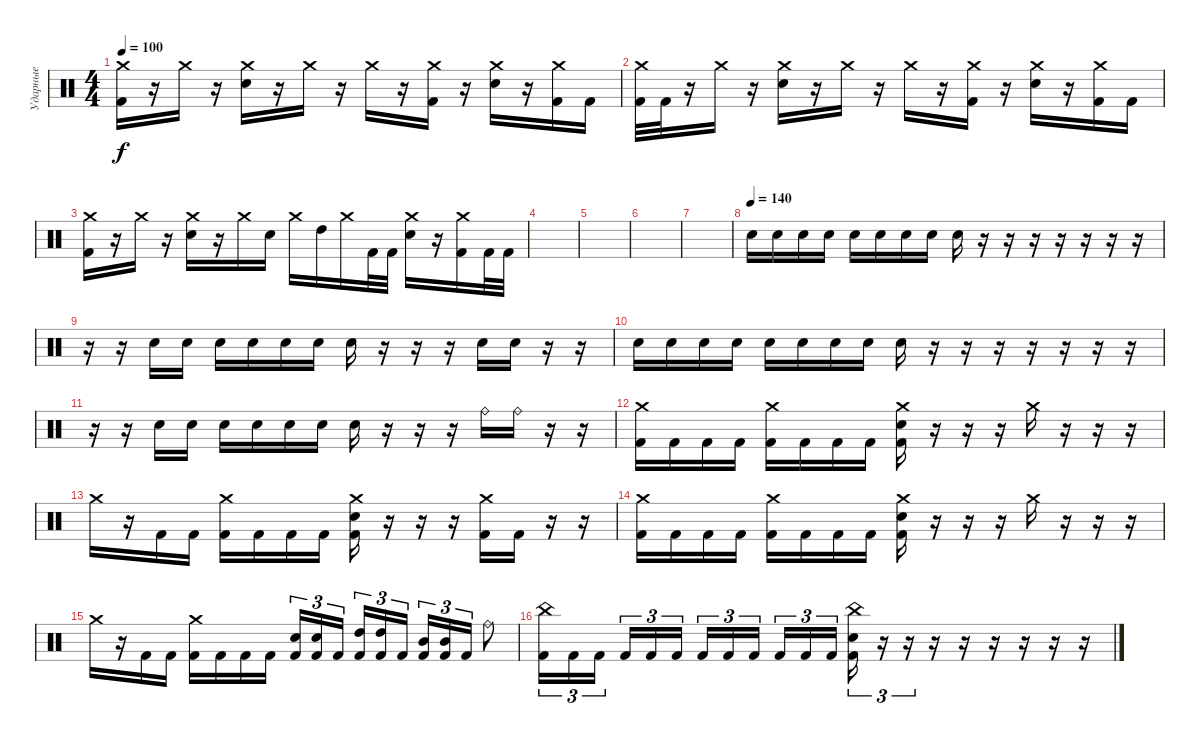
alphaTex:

\track ("Ударные" "Ударные") {instrument percussion}
\staff {score}
\articulation defaults
\ts (4 4)
\tempo 100
\clef neutral
\ks c
("Crash medium (hit)" "Kick (hit) 2").16{dy f} r.16 "Crash medium (hit)".16 r.16 ("Crash medium (hit)" "Electric Snare (hit)").16 r.16 "Crash medium (hit)".16 r.16 "Crash medium (hit)".16 r.16 ("Crash medium (hit)" "Kick (hit) 2").16 r.16 ("Crash medium (hit)" "Electric Snare (hit)").16 r.16 ("Crash medium (hit)" "Kick (hit) 2").16 "Kick (hit) 2".16 |
("Crash medium (hit)" "Kick (hit) 2").32 "Kick (hit) 2".32 r.16 "Crash medium (hit)".16 r.16 ("Crash medium (hit)" "Electric Snare (hit)").16 r.16 "Crash medium (hit)".16 r.16 "Crash medium (hit)".16 r.16 ("Crash medium (hit)" "Kick (hit) 2").16 r.16 ("Crash medium (hit)" "Electric Snare (hit)").16 r.16 ("Crash medium (hit)" "Kick (hit) 2").16 "Kick (hit) 2".16 |
("Crash medium (hit)" "Kick (hit) 2").16 r.16 "Crash medium (hit)".16 r.16 ("Crash medium (hit)" "Electric Snare (hit)").16 r.16 "Crash medium (hit)".16 "Electric Snare (hit)".16 "Crash medium (hit)".16 "High Tom (hit)".16 "Crash medium (hit)".16 "Kick (hit) 2".32 "Kick (hit) 2".32 ("Crash medium (hit)" "Electric Snare (hit)").16 r.16 ("Crash medium (hit)" "Kick (hit) 2").16 "Kick (hit) 2".32 "Kick (hit) 2".32 |
|
|
|
|
\tempo (140)
"Electric Snare (hit)".16 "Electric Snare (hit)".16 "Electric Snare (hit)".16 "Electric Snare (hit)".16 "Electric Snare (hit)".16 "Electric Snare (hit)".16 "Electric Snare (hit)".16 "Electric Snare (hit)".16 "Electric Snare (hit)".16 r.16 r.16 r.16 r.16 r.16 r.16 r.16 |
r.16 r.16 "Electric Snare (hit)".16 "Electric Snare (hit)".16 "Electric Snare (hit)".16 "Electric Snare (hit)".16 "Electric Snare (hit)".16 "Electric Snare (hit)".16 "Electric Snare (hit)".16 r.16 r.16 r.16 "Electric Snare (hit)".16 "Electric Snare (hit)".16 r.16 r.16 |
"Electric Snare (hit)".16 "Electric Snare (hit)".16 "Electric Snare (hit)".16 "Electric Snare (hit)".16 "Electric Snare (hit)".16 "Electric Snare (hit)".16 "Electric Snare (hit)".16 "Electric Snare (hit)".16 "Electric Snare (hit)".16 r.16 r.16 r.16 r.16 r.16 r.16 r.16 |
r.16 r.16 "Electric Snare (hit)".16 "Electric Snare (hit)".16 "Electric Snare (hit)".16 "Electric Snare (hit)".16 "Electric Snare (hit)".16 "Electric Snare (hit)".16 "Electric Snare (hit)".16 r.16 r.16 r.16 "Ride (bell)".16 "Ride (bell)".16 r.16 r.16 |
("Crash medium (hit)" "Kick (hit) 2").16 "Kick (hit) 2".16 "Kick (hit) 2".16 "Kick (hit) 2".16 ("Crash medium (hit)" "Kick (hit) 2").16 "Kick (hit) 2".16 "Kick (hit) 2".16 "Kick (hit) 2".16 ("Crash medium (hit)" "Electric Snare (hit)" "Kick (hit) 2").16 r.16 r.16 r.16 "Crash medium (hit)".16 r.16 r.16 r.16 |
"Crash medium (hit)".16 r.16 "Kick (hit) 2".16 "Kick (hit) 2".16 ("Crash medium (hit)" "Kick (hit) 2").16 "Kick (hit) 2".16 "Kick (hit) 2".16 "Kick (hit) 2".16 ("Crash medium (hit)" "Electric Snare (hit)" "Kick (hit) 2").16 r.16 r.16 r.16 ("Crash medium (hit)" "Kick (hit) 2").16 "Kick (hit) 2".16 r.16 r.16 |
("Crash medium (hit)" "Kick (hit) 2").16 "Kick (hit) 2".16 "Kick (hit) 2".16 "Kick (hit) 2".16 ("Crash medium (hit)" "Kick (hit) 2").16 "Kick (hit) 2".16 "Kick (hit) 2".16 "Kick (hit) 2".16 ("Crash medium (hit)" "Electric Snare (hit)" "Kick (hit) 2").16 r.16 r.16 r.16 "Crash medium (hit)".16 r.16 r.16 r.16 |
"Crash medium (hit)".16 r.16 "Kick (hit) 2".16 "Kick (hit) 2".16 ("Crash medium (hit)" "Kick (hit) 2").16 "Kick (hit) 2".16 "Kick (hit) 2".16 "Kick (hit) 2".16 ("Electric Snare (hit)" "Kick (hit) 2").16{tu (3 2)} ("Electric Snare (hit)" "Kick (hit) 2").16{tu (3 2)} "Kick (hit) 2".16{tu (3 2) beam splitsecondary} ("High Tom (hit)" "Kick (hit) 2").16{tu (3 2)} ("High Tom (hit)" "Kick (hit) 2").16{tu (3 2)} "Kick (hit) 2".16{tu (3 2)} ("Mid Tom (hit)" "Kick (hit) 2").16{tu (3 2)} ("Mid Tom (hit)" "Kick (hit) 2").16{tu (3 2)} "Kick (hit) 2".16{tu (3 2)} "Ride (bell)".8 |
("China (hit)" "Kick (hit) 2").16{tu (3 2)} "Kick (hit) 2".16{tu (3 2)} "Kick (hit) 2".16{tu (3 2) beam splitsecondary} "Kick (hit) 2".16{tu (3 2)} "Kick (hit) 2".16{tu (3 2)} "Kick (hit) 2".16{tu (3 2)} "Kick (hit) 2".16{tu (3 2)} "Kick (hit) 2".16{tu (3 2)} "Kick (hit) 2".16{tu (3 2) beam splitsecondary} "Kick (hit) 2".16{tu (3 2)} "Kick (hit) 2".16{tu (3 2)} "Kick (hit) 2".16{tu (3 2)} ("China (hit)" "Electric Snare (hit)" "Kick (hit) 2").16{tu (3 2)} r.16{tu (3 2)} r.16{tu (3 2)} r.16 r.16 r.16 r.16 r.16 r.16
